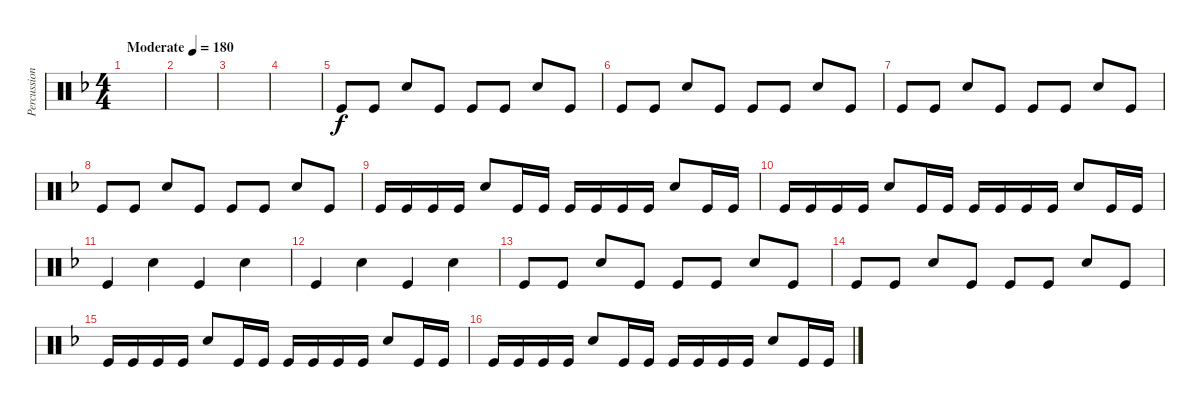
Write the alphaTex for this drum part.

\track ("Percussion" "Percussion") {instrument percussion}
\staff {score}
\articulation defaults
\ts (4 4)
\tempo (180 "Moderate")
\clef neutral
\ks dminor
|
|
|
|
"Kick (hit)".8 "Kick (hit)".8 "Electric Snare (hit)".8 "Kick (hit)".8 "Kick (hit)".8 "Kick (hit)".8 "Electric Snare (hit)".8 "Kick (hit)".8 |
"Kick (hit)".8 "Kick (hit)".8 "Electric Snare (hit)".8 "Kick (hit)".8 "Kick (hit)".8 "Kick (hit)".8 "Electric Snare (hit)".8 "Kick (hit)".8 |
"Kick (hit)".8 "Kick (hit)".8 "Electric Snare (hit)".8 "Kick (hit)".8 "Kick (hit)".8 "Kick (hit)".8 "Electric Snare (hit)".8 "Kick (hit)".8 |
"Kick (hit)".8 "Kick (hit)".8 "Electric Snare (hit)".8 "Kick (hit)".8 "Kick (hit)".8 "Kick (hit)".8 "Electric Snare (hit)".8 "Kick (hit)".8 |
"Kick (hit)".16 "Kick (hit)".16 "Kick (hit)".16 "Kick (hit)".16 "Electric Snare (hit)".8 "Kick (hit)".16 "Kick (hit)".16 "Kick (hit)".16 "Kick (hit)".16 "Kick (hit)".16 "Kick (hit)".16 "Electric Snare (hit)".8 "Kick (hit)".16 "Kick (hit)".16 |
"Kick (hit)".16 "Kick (hit)".16 "Kick (hit)".16 "Kick (hit)".16 "Electric Snare (hit)".8 "Kick (hit)".16 "Kick (hit)".16 "Kick (hit)".16 "Kick (hit)".16 "Kick (hit)".16 "Kick (hit)".16 "Electric Snare (hit)".8 "Kick (hit)".16 "Kick (hit)".16 |
"Kick (hit)".4 "Electric Snare (hit)".4 "Kick (hit)".4 "Electric Snare (hit)".4 |
"Kick (hit)".4 "Electric Snare (hit)".4 "Kick (hit)".4 "Electric Snare (hit)".4 |
"Kick (hit)".8 "Kick (hit)".8 "Electric Snare (hit)".8 "Kick (hit)".8 "Kick (hit)".8 "Kick (hit)".8 "Electric Snare (hit)".8 "Kick (hit)".8 |
"Kick (hit)".8 "Kick (hit)".8 "Electric Snare (hit)".8 "Kick (hit)".8 "Kick (hit)".8 "Kick (hit)".8 "Electric Snare (hit)".8 "Kick (hit)".8 |
"Kick (hit)".16 "Kick (hit)".16 "Kick (hit)".16 "Kick (hit)".16 "Electric Snare (hit)".8 "Kick (hit)".16 "Kick (hit)".16 "Kick (hit)".16 "Kick (hit)".16 "Kick (hit)".16 "Kick (hit)".16 "Electric Snare (hit)".8 "Kick (hit)".16 "Kick (hit)".16 |
"Kick (hit)".16 "Kick (hit)".16 "Kick (hit)".16 "Kick (hit)".16 "Electric Snare (hit)".8 "Kick (hit)".16 "Kick (hit)".16 "Kick (hit)".16 "Kick (hit)".16 "Kick (hit)".16 "Kick (hit)".16 "Electric Snare (hit)".8 "Kick (hit)".16 "Kick (hit)".16
